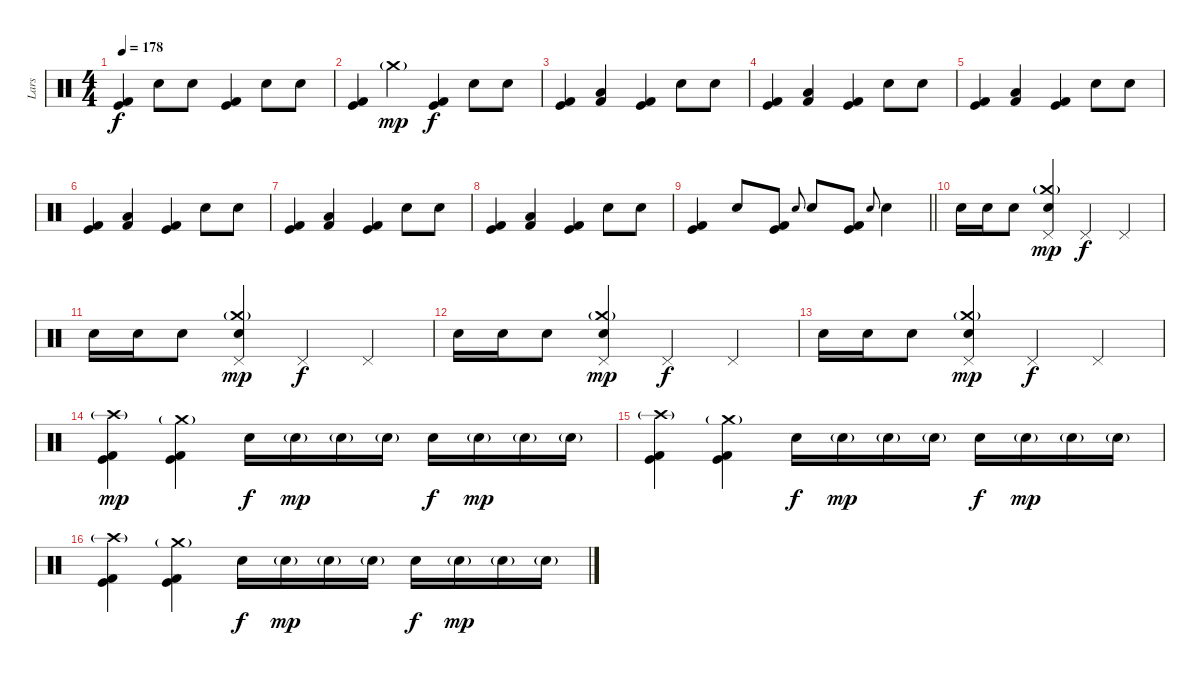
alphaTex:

\track ("Lars" "Lars") {instrument percussion}
\staff {score}
\articulation defaults
\ts (4 4)
\tempo 178
\clef neutral
\ks c
("Kick (hit)" "Kick (hit) 2").4{dy f} "Electric Snare (hit)".8 "Electric Snare (hit)".8 ("Kick (hit)" "Kick (hit) 2").4 "Electric Snare (hit)".8 "Electric Snare (hit)".8 |
("Kick (hit)" "Kick (hit) 2").4 "Crash medium (hit)"{g}.4{dy mp} ("Kick (hit)" "Kick (hit) 2").4{dy f} "Electric Snare (hit)".8 "Electric Snare (hit)".8 |
("Kick (hit)" "Kick (hit) 2").4 ("Kick (hit) 2" "Low Tom (hit)").4 ("Kick (hit)" "Kick (hit) 2").4 "Electric Snare (hit)".8 "Electric Snare (hit)".8 |
("Kick (hit)" "Kick (hit) 2").4 ("Kick (hit) 2" "Low Tom (hit)").4 ("Kick (hit)" "Kick (hit) 2").4 "Electric Snare (hit)".8 "Electric Snare (hit)".8 |
("Kick (hit)" "Kick (hit) 2").4 ("Kick (hit) 2" "Low Tom (hit)").4 ("Kick (hit)" "Kick (hit) 2").4 "Electric Snare (hit)".8 "Electric Snare (hit)".8 |
("Kick (hit)" "Kick (hit) 2").4 ("Kick (hit) 2" "Low Tom (hit)").4 ("Kick (hit)" "Kick (hit) 2").4 "Electric Snare (hit)".8 "Electric Snare (hit)".8 |
("Kick (hit)" "Kick (hit) 2").4 ("Kick (hit) 2" "Low Tom (hit)").4 ("Kick (hit)" "Kick (hit) 2").4 "Electric Snare (hit)".8 "Electric Snare (hit)".8 |
("Kick (hit)" "Kick (hit) 2").4 ("Kick (hit) 2" "Low Tom (hit)").4 ("Kick (hit)" "Kick (hit) 2").4 "Electric Snare (hit)".8 "Electric Snare (hit)".8 |
\barLineRight lightlight
("Kick (hit)" "Kick (hit) 2").4 "Electric Snare (hit)".8 ("Kick (hit)" "Kick (hit) 2").8 "Electric Snare (hit)".8{gr onbeat} "Electric Snare (hit)".8 ("Kick (hit)" "Kick (hit) 2").8 "Electric Snare (hit)".8{gr onbeat} "Electric Snare (hit)".4 |
\section ("" "")
"Electric Snare (hit)".16 "Electric Snare (hit)".16 "Electric Snare (hit)".8 ("Crash medium (hit)"{g} "Pedal Hi-Hat (hit)" "Electric Snare (hit)").4{dy mp} "Pedal Hi-Hat (hit)".4{dy f} "Pedal Hi-Hat (hit)".4 |
"Electric Snare (hit)".16 "Electric Snare (hit)".16 "Electric Snare (hit)".8 ("Crash medium (hit)"{g} "Pedal Hi-Hat (hit)" "Electric Snare (hit)").4{dy mp} "Pedal Hi-Hat (hit)".4{dy f} "Pedal Hi-Hat (hit)".4 |
"Electric Snare (hit)".16 "Electric Snare (hit)".16 "Electric Snare (hit)".8 ("Crash medium (hit)"{g} "Pedal Hi-Hat (hit)" "Electric Snare (hit)").4{dy mp} "Pedal Hi-Hat (hit)".4{dy f} "Pedal Hi-Hat (hit)".4 |
"Electric Snare (hit)".16 "Electric Snare (hit)".16 "Electric Snare (hit)".8 ("Crash medium (hit)"{g} "Pedal Hi-Hat (hit)" "Electric Snare (hit)").4{dy mp} "Pedal Hi-Hat (hit)".4{dy f} "Pedal Hi-Hat (hit)".4 |
("Crash high (hit)"{g} "Kick (hit)" "Kick (hit) 2").4{dy mp} ("Crash medium (hit)"{g} "Kick (hit)" "Kick (hit) 2").4 "Electric Snare (hit)".16{dy f} "Electric Snare (hit)"{g}.16{dy mp} "Electric Snare (hit)"{g}.16 "Electric Snare (hit)"{g}.16 "Electric Snare (hit)".16{dy f} "Electric Snare (hit)"{g}.16{dy mp} "Electric Snare (hit)"{g}.16 "Electric Snare (hit)"{g}.16 |
("Crash high (hit)"{g} "Kick (hit)" "Kick (hit) 2").4 ("Crash medium (hit)"{g} "Kick (hit)" "Kick (hit) 2").4 "Electric Snare (hit)".16{dy f} "Electric Snare (hit)"{g}.16{dy mp} "Electric Snare (hit)"{g}.16 "Electric Snare (hit)"{g}.16 "Electric Snare (hit)".16{dy f} "Electric Snare (hit)"{g}.16{dy mp} "Electric Snare (hit)"{g}.16 "Electric Snare (hit)"{g}.16 |
("Crash high (hit)"{g} "Kick (hit)" "Kick (hit) 2").4 ("Crash medium (hit)"{g} "Kick (hit)" "Kick (hit) 2").4 "Electric Snare (hit)".16{dy f} "Electric Snare (hit)"{g}.16{dy mp} "Electric Snare (hit)"{g}.16 "Electric Snare (hit)"{g}.16 "Electric Snare (hit)".16{dy f} "Electric Snare (hit)"{g}.16{dy mp} "Electric Snare (hit)"{g}.16 "Electric Snare (hit)"{g}.16
